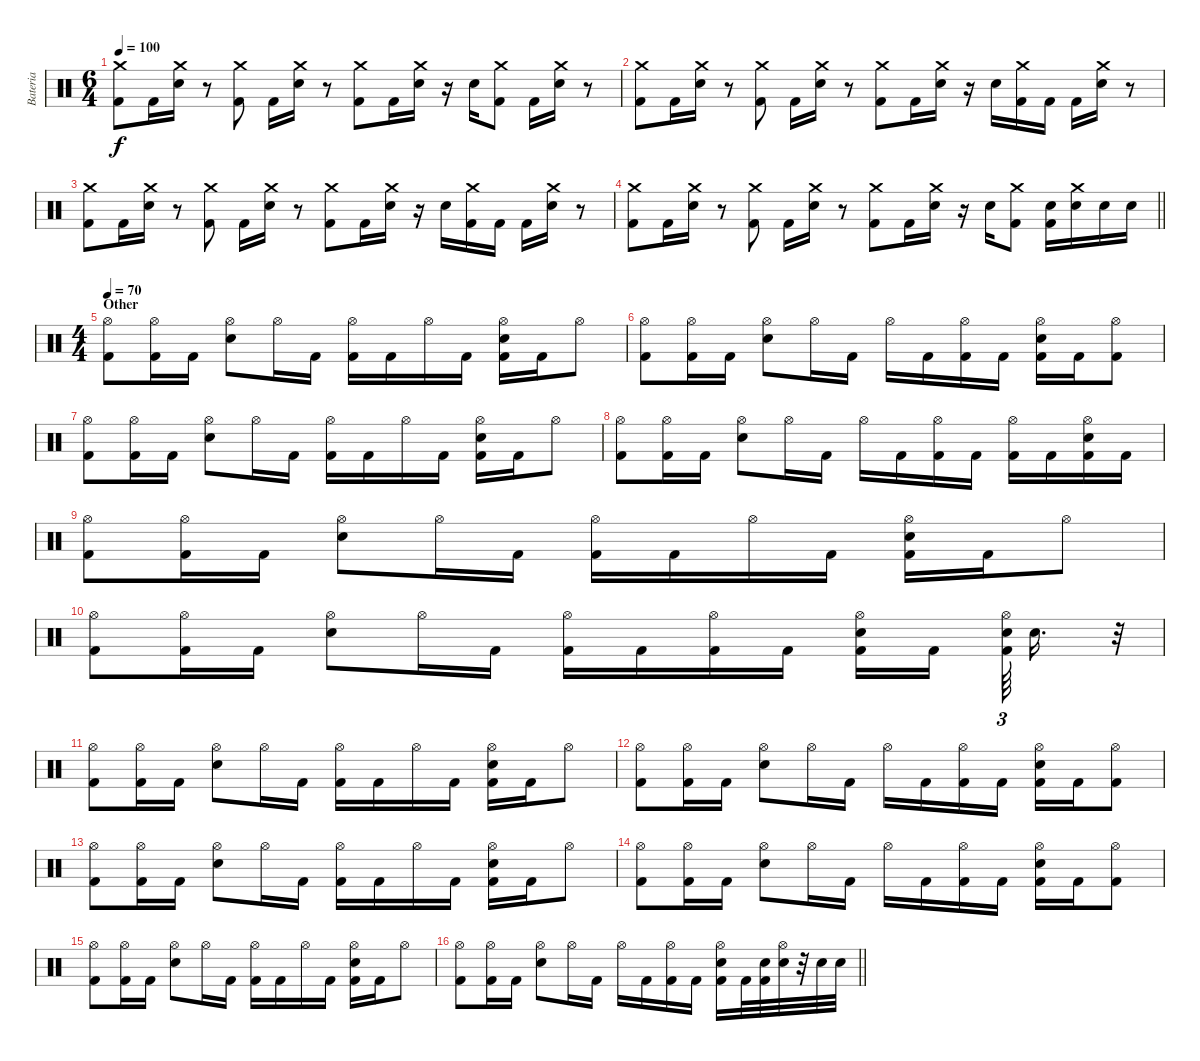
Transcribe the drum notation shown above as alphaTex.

\track ("Bateria" "Bateria") {instrument percussion}
\staff {score}
\articulation defaults
\ts (6 4)
\tempo 100
\clef neutral
\ks c
("Crash medium (hit)" "Kick (hit) 2").8{dy f} "Kick (hit) 2".16 ("Crash medium (hit)" "Electric Snare (hit)").16 r.8 ("Crash medium (hit)" "Kick (hit) 2").8 "Kick (hit) 2".16 ("Crash medium (hit)" "Electric Snare (hit)").16 r.8 ("Crash medium (hit)" "Kick (hit) 2").8 "Kick (hit) 2".16 ("Crash medium (hit)" "Electric Snare (hit)").16 r.16 "Electric Snare (hit)".16 ("Crash medium (hit)" "Kick (hit) 2").8 "Kick (hit) 2".16 ("Crash medium (hit)" "Electric Snare (hit)").16 r.8 |
("Crash medium (hit)" "Kick (hit) 2").8 "Kick (hit) 2".16 ("Crash medium (hit)" "Electric Snare (hit)").16 r.8 ("Crash medium (hit)" "Kick (hit) 2").8 "Kick (hit) 2".16 ("Crash medium (hit)" "Electric Snare (hit)").16 r.8 ("Crash medium (hit)" "Kick (hit) 2").8 "Kick (hit) 2".16 ("Crash medium (hit)" "Electric Snare (hit)").16 r.16 "Electric Snare (hit)".16 ("Crash medium (hit)" "Kick (hit) 2").16 "Kick (hit) 2".16 "Kick (hit) 2".16 ("Crash medium (hit)" "Electric Snare (hit)").16 r.8 |
("Crash medium (hit)" "Kick (hit) 2").8 "Kick (hit) 2".16 ("Crash medium (hit)" "Electric Snare (hit)").16 r.8 ("Crash medium (hit)" "Kick (hit) 2").8 "Kick (hit) 2".16 ("Crash medium (hit)" "Electric Snare (hit)").16 r.8 ("Crash medium (hit)" "Kick (hit) 2").8 "Kick (hit) 2".16 ("Crash medium (hit)" "Electric Snare (hit)").16 r.16 "Electric Snare (hit)".16 ("Crash medium (hit)" "Kick (hit) 2").16 "Kick (hit) 2".16 "Kick (hit) 2".16 ("Crash medium (hit)" "Electric Snare (hit)").16 r.8 |
\barLineRight lightlight
("Crash medium (hit)" "Kick (hit) 2").8 "Kick (hit) 2".16 ("Crash medium (hit)" "Electric Snare (hit)").16 r.8 ("Crash medium (hit)" "Kick (hit) 2").8 "Kick (hit) 2".16 ("Crash medium (hit)" "Electric Snare (hit)").16 r.8 ("Crash medium (hit)" "Kick (hit) 2").8 "Kick (hit) 2".16 ("Crash medium (hit)" "Electric Snare (hit)").16 r.16 "Electric Snare (hit)".16 ("Crash medium (hit)" "Kick (hit) 2").8 ("Electric Snare (hit)" "Kick (hit) 2").16 ("Crash medium (hit)" "Electric Snare (hit)").16 "Electric Snare (hit)".16 "Electric Snare (hit)".16 |
\ts (4 4)
\section ("" "Other")
\tempo 70
("Hi-Hat (open)" "Kick (hit) 2").8 ("Hi-Hat (open)" "Kick (hit) 2").16 "Kick (hit) 2".16 ("Hi-Hat (open)" "Electric Snare (hit)").8 "Hi-Hat (open)".16 "Kick (hit) 2".16 ("Hi-Hat (open)" "Kick (hit) 2").16 "Kick (hit) 2".16 "Hi-Hat (open)".16 "Kick (hit) 2".16 ("Hi-Hat (open)" "Electric Snare (hit)" "Kick (hit) 2").16 "Kick (hit) 2".16 "Hi-Hat (open)".8 |
("Hi-Hat (open)" "Kick (hit) 2").8 ("Hi-Hat (open)" "Kick (hit) 2").16 "Kick (hit) 2".16 ("Hi-Hat (open)" "Electric Snare (hit)").8 "Hi-Hat (open)".16 "Kick (hit) 2".16 "Hi-Hat (open)".16 "Kick (hit) 2".16 ("Hi-Hat (open)" "Kick (hit) 2").16 "Kick (hit) 2".16 ("Hi-Hat (open)" "Electric Snare (hit)" "Kick (hit) 2").16 "Kick (hit) 2".16 ("Hi-Hat (open)" "Kick (hit) 2").8 |
("Hi-Hat (open)" "Kick (hit) 2").8 ("Hi-Hat (open)" "Kick (hit) 2").16 "Kick (hit) 2".16 ("Hi-Hat (open)" "Electric Snare (hit)").8 "Hi-Hat (open)".16 "Kick (hit) 2".16 ("Hi-Hat (open)" "Kick (hit) 2").16 "Kick (hit) 2".16 "Hi-Hat (open)".16 "Kick (hit) 2".16 ("Hi-Hat (open)" "Electric Snare (hit)" "Kick (hit) 2").16 "Kick (hit) 2".16 "Hi-Hat (open)".8 |
("Hi-Hat (open)" "Kick (hit) 2").8 ("Hi-Hat (open)" "Kick (hit) 2").16 "Kick (hit) 2".16 ("Hi-Hat (open)" "Electric Snare (hit)").8 "Hi-Hat (open)".16 "Kick (hit) 2".16 "Hi-Hat (open)".16 "Kick (hit) 2".16 ("Hi-Hat (open)" "Kick (hit) 2").16 "Kick (hit) 2".16 ("Hi-Hat (open)" "Kick (hit) 2").16 "Kick (hit) 2".16 ("Hi-Hat (open)" "Electric Snare (hit)" "Kick (hit) 2").16 "Kick (hit) 2".16 |
("Hi-Hat (open)" "Kick (hit) 2").8 ("Hi-Hat (open)" "Kick (hit) 2").16 "Kick (hit) 2".16 ("Hi-Hat (open)" "Electric Snare (hit)").8 "Hi-Hat (open)".16 "Kick (hit) 2".16 ("Hi-Hat (open)" "Kick (hit) 2").16 "Kick (hit) 2".16 "Hi-Hat (open)".16 "Kick (hit) 2".16 ("Hi-Hat (open)" "Electric Snare (hit)" "Kick (hit) 2").16 "Kick (hit) 2".16 "Hi-Hat (open)".8 |
("Hi-Hat (open)" "Kick (hit) 2").8 ("Hi-Hat (open)" "Kick (hit) 2").16 "Kick (hit) 2".16 ("Hi-Hat (open)" "Electric Snare (hit)").8 "Hi-Hat (open)".16 "Kick (hit) 2".16 ("Hi-Hat (open)" "Kick (hit) 2").16 "Kick (hit) 2".16 ("Hi-Hat (open)" "Kick (hit) 2").16 "Kick (hit) 2".16 ("Hi-Hat (open)" "Electric Snare (hit)" "Kick (hit) 2").16 "Kick (hit) 2".16 ("Hi-Hat (open)" "Electric Snare (hit)" "Kick (hit) 2").64{tu (3 2)} "Electric Snare (hit)".16{d} r.32{tu (3 2)} |
("Hi-Hat (open)" "Kick (hit) 2").8 ("Hi-Hat (open)" "Kick (hit) 2").16 "Kick (hit) 2".16 ("Hi-Hat (open)" "Electric Snare (hit)").8 "Hi-Hat (open)".16 "Kick (hit) 2".16 ("Hi-Hat (open)" "Kick (hit) 2").16 "Kick (hit) 2".16 "Hi-Hat (open)".16 "Kick (hit) 2".16 ("Hi-Hat (open)" "Electric Snare (hit)" "Kick (hit) 2").16 "Kick (hit) 2".16 "Hi-Hat (open)".8 |
("Hi-Hat (open)" "Kick (hit) 2").8 ("Hi-Hat (open)" "Kick (hit) 2").16 "Kick (hit) 2".16 ("Hi-Hat (open)" "Electric Snare (hit)").8 "Hi-Hat (open)".16 "Kick (hit) 2".16 "Hi-Hat (open)".16 "Kick (hit) 2".16 ("Hi-Hat (open)" "Kick (hit) 2").16 "Kick (hit) 2".16 ("Hi-Hat (open)" "Electric Snare (hit)" "Kick (hit) 2").16 "Kick (hit) 2".16 ("Hi-Hat (open)" "Kick (hit) 2").8 |
("Hi-Hat (open)" "Kick (hit) 2").8 ("Hi-Hat (open)" "Kick (hit) 2").16 "Kick (hit) 2".16 ("Hi-Hat (open)" "Electric Snare (hit)").8 "Hi-Hat (open)".16 "Kick (hit) 2".16 ("Hi-Hat (open)" "Kick (hit) 2").16 "Kick (hit) 2".16 "Hi-Hat (open)".16 "Kick (hit) 2".16 ("Hi-Hat (open)" "Electric Snare (hit)" "Kick (hit) 2").16 "Kick (hit) 2".16 "Hi-Hat (open)".8 |
("Hi-Hat (open)" "Kick (hit) 2").8 ("Hi-Hat (open)" "Kick (hit) 2").16 "Kick (hit) 2".16 ("Hi-Hat (open)" "Electric Snare (hit)").8 "Hi-Hat (open)".16 "Kick (hit) 2".16 "Hi-Hat (open)".16 "Kick (hit) 2".16 ("Hi-Hat (open)" "Kick (hit) 2").16 "Kick (hit) 2".16 ("Hi-Hat (open)" "Electric Snare (hit)" "Kick (hit) 2").16 "Kick (hit) 2".16 ("Hi-Hat (open)" "Kick (hit) 2").8 |
("Hi-Hat (open)" "Kick (hit) 2").8 ("Hi-Hat (open)" "Kick (hit) 2").16 "Kick (hit) 2".16 ("Hi-Hat (open)" "Electric Snare (hit)").8 "Hi-Hat (open)".16 "Kick (hit) 2".16 ("Hi-Hat (open)" "Kick (hit) 2").16 "Kick (hit) 2".16 "Hi-Hat (open)".16 "Kick (hit) 2".16 ("Hi-Hat (open)" "Electric Snare (hit)" "Kick (hit) 2").16 "Kick (hit) 2".16 "Hi-Hat (open)".8 |
\barLineRight lightlight
("Hi-Hat (open)" "Kick (hit) 2").8 ("Hi-Hat (open)" "Kick (hit) 2").16 "Kick (hit) 2".16 ("Hi-Hat (open)" "Electric Snare (hit)").8 "Hi-Hat (open)".16 "Kick (hit) 2".16 "Hi-Hat (open)".16 "Kick (hit) 2".16 ("Hi-Hat (open)" "Kick (hit) 2").16 "Kick (hit) 2".16 ("Hi-Hat (open)" "Electric Snare (hit)" "Kick (hit) 2").16 "Kick (hit) 2".32 ("Electric Snare (hit)" "Kick (hit) 2").32 ("Hi-Hat (open)" "Electric Snare (hit)").32 r.32 "Electric Snare (hit)".32 "Electric Snare (hit)".32
